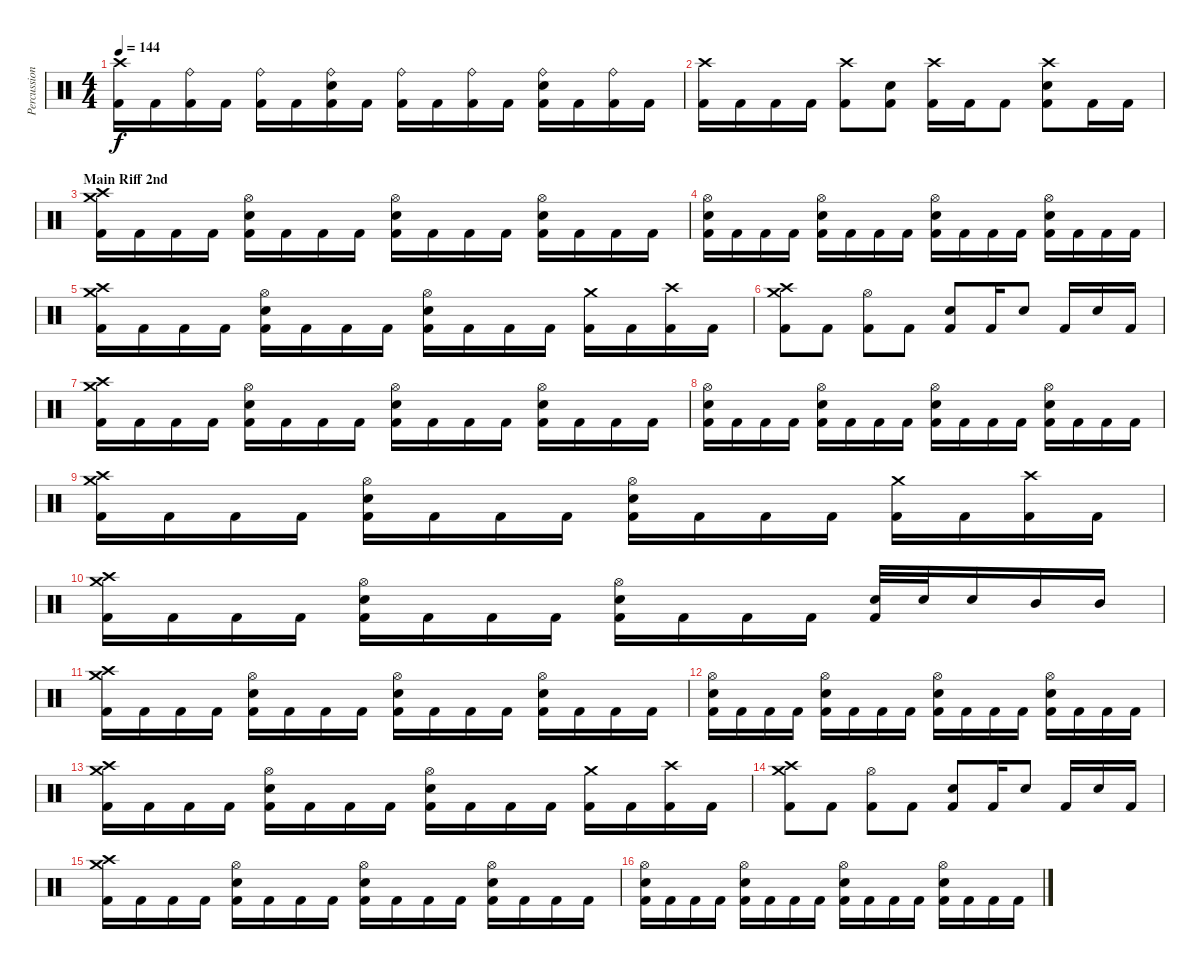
\track ("Percussion" "Percussion") {instrument percussion}
\staff {score}
\articulation defaults
\ts (4 4)
\tempo 144
\clef neutral
\ks c
("Crash high (hit)" "Kick (hit) 2").16{dy f} "Kick (hit) 2".16 ("Ride (bell)" "Kick (hit) 2").16 "Kick (hit) 2".16 ("Ride (bell)" "Kick (hit) 2").16 "Kick (hit) 2".16 ("Ride (bell)" "Electric Snare (hit)" "Kick (hit) 2").16 "Kick (hit) 2".16 ("Ride (bell)" "Kick (hit) 2").16 "Kick (hit) 2".16 ("Ride (bell)" "Kick (hit) 2").16 "Kick (hit) 2".16 ("Ride (bell)" "Electric Snare (hit)" "Kick (hit) 2").16 "Kick (hit) 2".16 ("Ride (bell)" "Kick (hit) 2").16 "Kick (hit) 2".16 |
("Crash high (hit)" "Kick (hit) 2").16 "Kick (hit) 2".16 "Kick (hit) 2".16 "Kick (hit) 2".16 ("Crash high (hit)" "Kick (hit) 2").8 ("Electric Snare (hit)" "Kick (hit) 2").8 ("Crash high (hit)" "Kick (hit) 2").16 "Kick (hit) 2".16 "Kick (hit) 2".8 ("Crash high (hit)" "Electric Snare (hit)" "Kick (hit) 2").8 "Kick (hit) 2".16 "Kick (hit) 2".16 |
\section ("" "Main Riff 2nd")
("Crash medium (hit)" "Crash high (hit)" "Kick (hit) 2").16 "Kick (hit) 2".16 "Kick (hit) 2".16 "Kick (hit) 2".16 ("Hi-Hat (open)" "Electric Snare (hit)" "Kick (hit) 2").16 "Kick (hit) 2".16 "Kick (hit) 2".16 "Kick (hit) 2".16 ("Hi-Hat (open)" "Electric Snare (hit)" "Kick (hit) 2").16 "Kick (hit) 2".16 "Kick (hit) 2".16 "Kick (hit) 2".16 ("Hi-Hat (open)" "Electric Snare (hit)" "Kick (hit) 2").16 "Kick (hit) 2".16 "Kick (hit) 2".16 "Kick (hit) 2".16 |
("Hi-Hat (open)" "Electric Snare (hit)" "Kick (hit) 2").16 "Kick (hit) 2".16 "Kick (hit) 2".16 "Kick (hit) 2".16 ("Hi-Hat (open)" "Electric Snare (hit)" "Kick (hit) 2").16 "Kick (hit) 2".16 "Kick (hit) 2".16 "Kick (hit) 2".16 ("Hi-Hat (open)" "Electric Snare (hit)" "Kick (hit) 2").16 "Kick (hit) 2".16 "Kick (hit) 2".16 "Kick (hit) 2".16 ("Hi-Hat (open)" "Electric Snare (hit)" "Kick (hit) 2").16 "Kick (hit) 2".16 "Kick (hit) 2".16 "Kick (hit) 2".16 |
("Crash medium (hit)" "Crash high (hit)" "Kick (hit) 2").16 "Kick (hit) 2".16 "Kick (hit) 2".16 "Kick (hit) 2".16 ("Hi-Hat (open)" "Electric Snare (hit)" "Kick (hit) 2").16 "Kick (hit) 2".16 "Kick (hit) 2".16 "Kick (hit) 2".16 ("Hi-Hat (open)" "Electric Snare (hit)" "Kick (hit) 2").16 "Kick (hit) 2".16 "Kick (hit) 2".16 "Kick (hit) 2".16 ("Crash medium (hit)" "Kick (hit) 2").16 "Kick (hit) 2".16 ("Crash high (hit)" "Kick (hit) 2").16 "Kick (hit) 2".16 |
("Crash medium (hit)" "Crash high (hit)" "Kick (hit) 2").8 "Kick (hit) 2".8 ("Hi-Hat (open)" "Kick (hit) 2").8 "Kick (hit) 2".8 ("Electric Snare (hit)" "Kick (hit) 2").8 "Kick (hit) 2".16 "Electric Snare (hit)".8 "Kick (hit) 2".16 "Electric Snare (hit)".16 "Kick (hit) 2".16 |
("Crash medium (hit)" "Crash high (hit)" "Kick (hit) 2").16 "Kick (hit) 2".16 "Kick (hit) 2".16 "Kick (hit) 2".16 ("Hi-Hat (open)" "Electric Snare (hit)" "Kick (hit) 2").16 "Kick (hit) 2".16 "Kick (hit) 2".16 "Kick (hit) 2".16 ("Hi-Hat (open)" "Electric Snare (hit)" "Kick (hit) 2").16 "Kick (hit) 2".16 "Kick (hit) 2".16 "Kick (hit) 2".16 ("Hi-Hat (open)" "Electric Snare (hit)" "Kick (hit) 2").16 "Kick (hit) 2".16 "Kick (hit) 2".16 "Kick (hit) 2".16 |
("Hi-Hat (open)" "Electric Snare (hit)" "Kick (hit) 2").16 "Kick (hit) 2".16 "Kick (hit) 2".16 "Kick (hit) 2".16 ("Hi-Hat (open)" "Electric Snare (hit)" "Kick (hit) 2").16 "Kick (hit) 2".16 "Kick (hit) 2".16 "Kick (hit) 2".16 ("Hi-Hat (open)" "Electric Snare (hit)" "Kick (hit) 2").16 "Kick (hit) 2".16 "Kick (hit) 2".16 "Kick (hit) 2".16 ("Hi-Hat (open)" "Electric Snare (hit)" "Kick (hit) 2").16 "Kick (hit) 2".16 "Kick (hit) 2".16 "Kick (hit) 2".16 |
("Crash medium (hit)" "Crash high (hit)" "Kick (hit) 2").16 "Kick (hit) 2".16 "Kick (hit) 2".16 "Kick (hit) 2".16 ("Hi-Hat (open)" "Electric Snare (hit)" "Kick (hit) 2").16 "Kick (hit) 2".16 "Kick (hit) 2".16 "Kick (hit) 2".16 ("Hi-Hat (open)" "Electric Snare (hit)" "Kick (hit) 2").16 "Kick (hit) 2".16 "Kick (hit) 2".16 "Kick (hit) 2".16 ("Crash medium (hit)" "Kick (hit) 2").16 "Kick (hit) 2".16 ("Crash high (hit)" "Kick (hit) 2").16 "Kick (hit) 2".16 |
("Crash medium (hit)" "Crash high (hit)" "Kick (hit) 2").16 "Kick (hit) 2".16 "Kick (hit) 2".16 "Kick (hit) 2".16 ("Hi-Hat (open)" "Electric Snare (hit)" "Kick (hit) 2").16 "Kick (hit) 2".16 "Kick (hit) 2".16 "Kick (hit) 2".16 ("Hi-Hat (open)" "Electric Snare (hit)" "Kick (hit) 2").16 "Kick (hit) 2".16 "Kick (hit) 2".16 "Kick (hit) 2".16 ("Electric Snare (hit)" "Kick (hit) 2").32 "Electric Snare (hit)".32 "Electric Snare (hit)".16 "Mid Tom (hit)".16 "Mid Tom (hit)".16 |
("Crash medium (hit)" "Crash high (hit)" "Kick (hit) 2").16 "Kick (hit) 2".16 "Kick (hit) 2".16 "Kick (hit) 2".16 ("Hi-Hat (open)" "Electric Snare (hit)" "Kick (hit) 2").16 "Kick (hit) 2".16 "Kick (hit) 2".16 "Kick (hit) 2".16 ("Hi-Hat (open)" "Electric Snare (hit)" "Kick (hit) 2").16 "Kick (hit) 2".16 "Kick (hit) 2".16 "Kick (hit) 2".16 ("Hi-Hat (open)" "Electric Snare (hit)" "Kick (hit) 2").16 "Kick (hit) 2".16 "Kick (hit) 2".16 "Kick (hit) 2".16 |
("Hi-Hat (open)" "Electric Snare (hit)" "Kick (hit) 2").16 "Kick (hit) 2".16 "Kick (hit) 2".16 "Kick (hit) 2".16 ("Hi-Hat (open)" "Electric Snare (hit)" "Kick (hit) 2").16 "Kick (hit) 2".16 "Kick (hit) 2".16 "Kick (hit) 2".16 ("Hi-Hat (open)" "Electric Snare (hit)" "Kick (hit) 2").16 "Kick (hit) 2".16 "Kick (hit) 2".16 "Kick (hit) 2".16 ("Hi-Hat (open)" "Electric Snare (hit)" "Kick (hit) 2").16 "Kick (hit) 2".16 "Kick (hit) 2".16 "Kick (hit) 2".16 |
("Crash medium (hit)" "Crash high (hit)" "Kick (hit) 2").16 "Kick (hit) 2".16 "Kick (hit) 2".16 "Kick (hit) 2".16 ("Hi-Hat (open)" "Electric Snare (hit)" "Kick (hit) 2").16 "Kick (hit) 2".16 "Kick (hit) 2".16 "Kick (hit) 2".16 ("Hi-Hat (open)" "Electric Snare (hit)" "Kick (hit) 2").16 "Kick (hit) 2".16 "Kick (hit) 2".16 "Kick (hit) 2".16 ("Crash medium (hit)" "Kick (hit) 2").16 "Kick (hit) 2".16 ("Crash high (hit)" "Kick (hit) 2").16 "Kick (hit) 2".16 |
("Crash medium (hit)" "Crash high (hit)" "Kick (hit) 2").8 "Kick (hit) 2".8 ("Hi-Hat (open)" "Kick (hit) 2").8 "Kick (hit) 2".8 ("Electric Snare (hit)" "Kick (hit) 2").8 "Kick (hit) 2".16 "Electric Snare (hit)".8 "Kick (hit) 2".16 "Electric Snare (hit)".16 "Kick (hit) 2".16 |
("Crash medium (hit)" "Crash high (hit)" "Kick (hit) 2").16 "Kick (hit) 2".16 "Kick (hit) 2".16 "Kick (hit) 2".16 ("Hi-Hat (open)" "Electric Snare (hit)" "Kick (hit) 2").16 "Kick (hit) 2".16 "Kick (hit) 2".16 "Kick (hit) 2".16 ("Hi-Hat (open)" "Electric Snare (hit)" "Kick (hit) 2").16 "Kick (hit) 2".16 "Kick (hit) 2".16 "Kick (hit) 2".16 ("Hi-Hat (open)" "Electric Snare (hit)" "Kick (hit) 2").16 "Kick (hit) 2".16 "Kick (hit) 2".16 "Kick (hit) 2".16 |
("Hi-Hat (open)" "Electric Snare (hit)" "Kick (hit) 2").16 "Kick (hit) 2".16 "Kick (hit) 2".16 "Kick (hit) 2".16 ("Hi-Hat (open)" "Electric Snare (hit)" "Kick (hit) 2").16 "Kick (hit) 2".16 "Kick (hit) 2".16 "Kick (hit) 2".16 ("Hi-Hat (open)" "Electric Snare (hit)" "Kick (hit) 2").16 "Kick (hit) 2".16 "Kick (hit) 2".16 "Kick (hit) 2".16 ("Hi-Hat (open)" "Electric Snare (hit)" "Kick (hit) 2").16 "Kick (hit) 2".16 "Kick (hit) 2".16 "Kick (hit) 2".16
